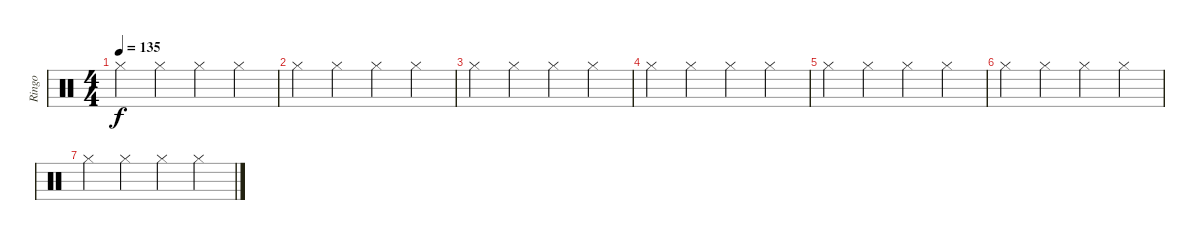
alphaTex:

\track ("Ringo" "Ringo") {instrument percussion}
\staff {score}
\articulation defaults
\ts (4 4)
\tempo 135
\clef neutral
\ks c "Hi-Hat (closed)".4{dy f} "Hi-Hat (closed)".4 "Hi-Hat (closed)".4 "Hi-Hat (closed)".4
|
"Hi-Hat (closed)".4{volume 8} "Hi-Hat (closed)".4 "Hi-Hat (closed)".4 "Hi-Hat (closed)".4 |
"Hi-Hat (closed)".4 "Hi-Hat (closed)".4 "Hi-Hat (closed)".4 "Hi-Hat (closed)".4 |
"Hi-Hat (closed)".4{volume 6} "Hi-Hat (closed)".4 "Hi-Hat (closed)".4 "Hi-Hat (closed)".4 |
"Hi-Hat (closed)".4{volume 5} "Hi-Hat (closed)".4 "Hi-Hat (closed)".4 "Hi-Hat (closed)".4 |
"Hi-Hat (closed)".4{volume 4} "Hi-Hat (closed)".4 "Hi-Hat (closed)".4 "Hi-Hat (closed)".4 |
"Hi-Hat (closed)".4{volume 3} "Hi-Hat (closed)".4 "Hi-Hat (closed)".4 "Hi-Hat (closed)".4
